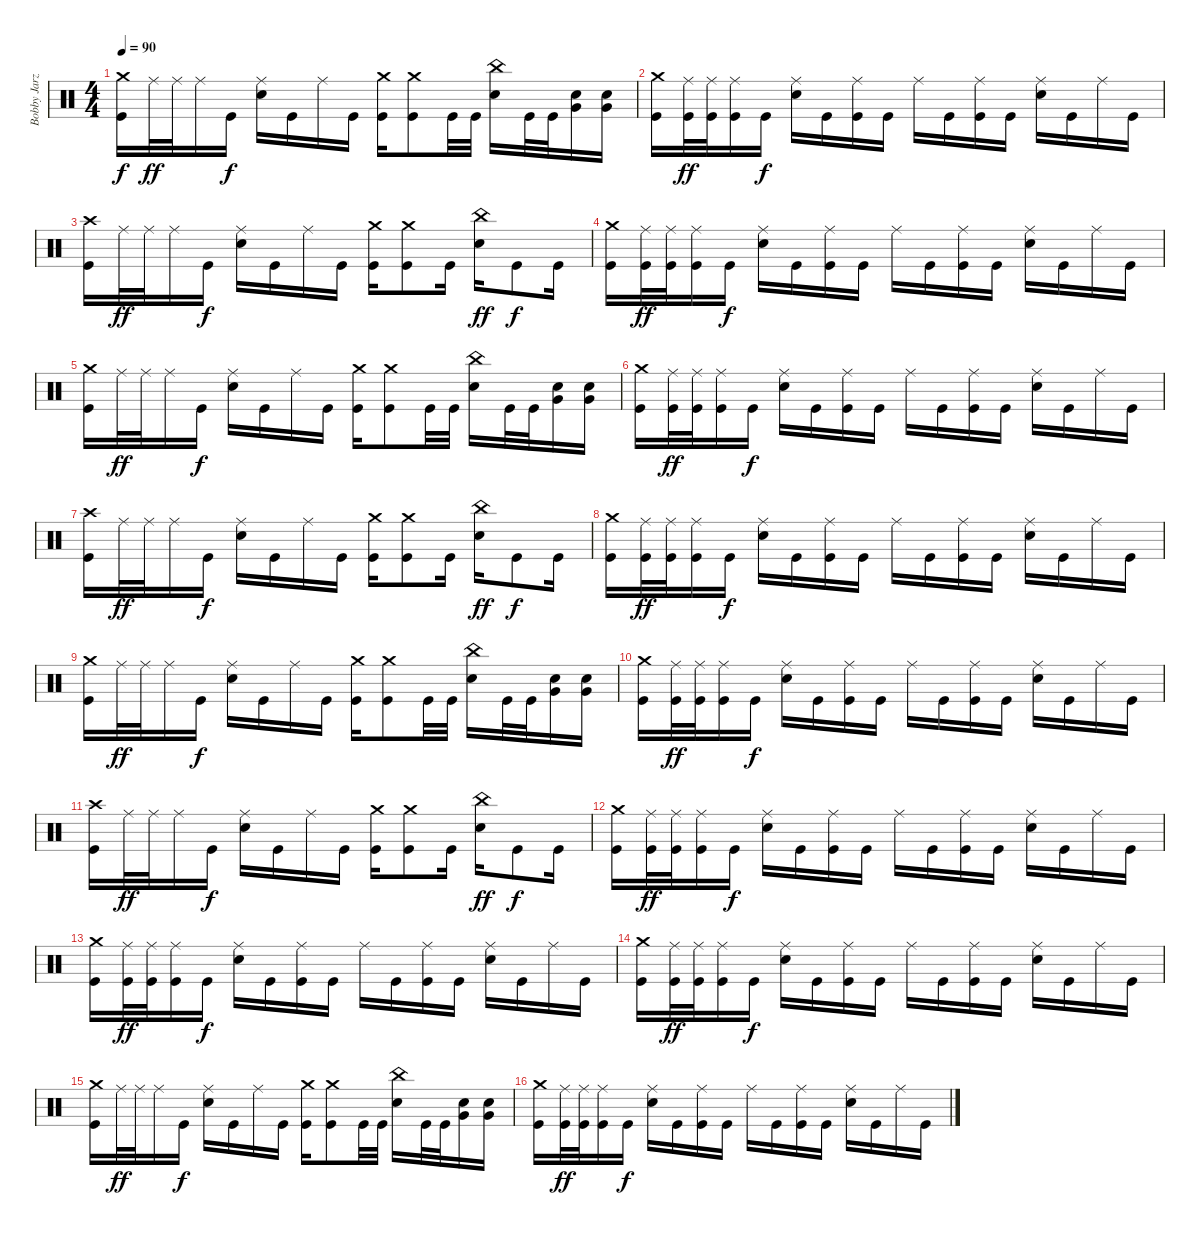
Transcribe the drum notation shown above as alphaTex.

\track ("Bobby Jarzombek" "Bobby Jarz") {instrument percussion}
\staff {score}
\articulation defaults
\ts (4 4)
\tempo 90
\clef neutral
\ks c
("Crash medium (hit)" "Kick (hit)").16{dy f} "Ride (middle)".32{dy ff} "Ride (middle)".32 "Ride (middle)".16 "Kick (hit)".16{dy f} ("Ride (middle)" "Electric Snare (hit)").16 "Kick (hit)".16 "Ride (middle)".16 "Kick (hit)".16 ("Crash medium (hit)" "Kick (hit)").16 ("Crash medium (hit)" "Kick (hit)").8 "Kick (hit)".32 "Kick (hit)".32 ("China (hit)" "Electric Snare (hit)").16 "Kick (hit)".32 "Kick (hit)".32 ("Very Low Tom (hit)" "Electric Snare (hit)").16 ("Very Low Tom (hit)" "Electric Snare (hit)").16 |
("Crash medium (hit)" "Kick (hit)").16 ("Ride (middle)" "Kick (hit)").32{dy ff} ("Ride (middle)" "Kick (hit)").32 ("Ride (middle)" "Kick (hit)").16 "Kick (hit)".16{dy f} ("Ride (middle)" "Electric Snare (hit)").16 "Kick (hit)".16 ("Ride (middle)" "Kick (hit)").16 "Kick (hit)".16 "Ride (middle)".16 "Kick (hit)".16 ("Ride (middle)" "Kick (hit)").16 "Kick (hit)".16 ("Ride (middle)" "Electric Snare (hit)").16 "Kick (hit)".16 "Ride (middle)".16 "Kick (hit)".16 |
("Crash high (hit)" "Kick (hit)").16 "Ride (middle)".32{dy ff} "Ride (middle)".32 "Ride (middle)".16 "Kick (hit)".16{dy f} ("Ride (middle)" "Electric Snare (hit)").16 "Kick (hit)".16 "Ride (middle)".16 "Kick (hit)".16 ("Crash medium (hit)" "Kick (hit)").16 ("Crash medium (hit)" "Kick (hit)").8 "Kick (hit)".16 ("China (hit)" "Electric Snare (hit)").16{dy ff} "Kick (hit)".8{dy f} "Kick (hit)".16 |
("Crash medium (hit)" "Kick (hit)").16 ("Ride (middle)" "Kick (hit)").32{dy ff} ("Ride (middle)" "Kick (hit)").32 ("Ride (middle)" "Kick (hit)").16 "Kick (hit)".16{dy f} ("Ride (middle)" "Electric Snare (hit)").16 "Kick (hit)".16 ("Ride (middle)" "Kick (hit)").16 "Kick (hit)".16 "Ride (middle)".16 "Kick (hit)".16 ("Ride (middle)" "Kick (hit)").16 "Kick (hit)".16 ("Ride (middle)" "Electric Snare (hit)").16 "Kick (hit)".16 "Ride (middle)".16 "Kick (hit)".16 |
("Crash medium (hit)" "Kick (hit)").16 "Ride (middle)".32{dy ff} "Ride (middle)".32 "Ride (middle)".16 "Kick (hit)".16{dy f} ("Ride (middle)" "Electric Snare (hit)").16 "Kick (hit)".16 "Ride (middle)".16 "Kick (hit)".16 ("Crash medium (hit)" "Kick (hit)").16 ("Crash medium (hit)" "Kick (hit)").8 "Kick (hit)".32 "Kick (hit)".32 ("China (hit)" "Electric Snare (hit)").16 "Kick (hit)".32 "Kick (hit)".32 ("Very Low Tom (hit)" "Electric Snare (hit)").16 ("Very Low Tom (hit)" "Electric Snare (hit)").16 |
("Crash medium (hit)" "Kick (hit)").16 ("Ride (middle)" "Kick (hit)").32{dy ff} ("Ride (middle)" "Kick (hit)").32 ("Ride (middle)" "Kick (hit)").16 "Kick (hit)".16{dy f} ("Ride (middle)" "Electric Snare (hit)").16 "Kick (hit)".16 ("Ride (middle)" "Kick (hit)").16 "Kick (hit)".16 "Ride (middle)".16 "Kick (hit)".16 ("Ride (middle)" "Kick (hit)").16 "Kick (hit)".16 ("Ride (middle)" "Electric Snare (hit)").16 "Kick (hit)".16 "Ride (middle)".16 "Kick (hit)".16 |
("Crash high (hit)" "Kick (hit)").16 "Ride (middle)".32{dy ff} "Ride (middle)".32 "Ride (middle)".16 "Kick (hit)".16{dy f} ("Ride (middle)" "Electric Snare (hit)").16 "Kick (hit)".16 "Ride (middle)".16 "Kick (hit)".16 ("Crash medium (hit)" "Kick (hit)").16 ("Crash medium (hit)" "Kick (hit)").8 "Kick (hit)".16 ("China (hit)" "Electric Snare (hit)").16{dy ff} "Kick (hit)".8{dy f} "Kick (hit)".16 |
("Crash medium (hit)" "Kick (hit)").16 ("Ride (middle)" "Kick (hit)").32{dy ff} ("Ride (middle)" "Kick (hit)").32 ("Ride (middle)" "Kick (hit)").16 "Kick (hit)".16{dy f} ("Ride (middle)" "Electric Snare (hit)").16 "Kick (hit)".16 ("Ride (middle)" "Kick (hit)").16 "Kick (hit)".16 "Ride (middle)".16 "Kick (hit)".16 ("Ride (middle)" "Kick (hit)").16 "Kick (hit)".16 ("Ride (middle)" "Electric Snare (hit)").16 "Kick (hit)".16 "Ride (middle)".16 "Kick (hit)".16 |
("Crash medium (hit)" "Kick (hit)").16 "Ride (middle)".32{dy ff} "Ride (middle)".32 "Ride (middle)".16 "Kick (hit)".16{dy f} ("Ride (middle)" "Electric Snare (hit)").16 "Kick (hit)".16 "Ride (middle)".16 "Kick (hit)".16 ("Crash medium (hit)" "Kick (hit)").16 ("Crash medium (hit)" "Kick (hit)").8 "Kick (hit)".32 "Kick (hit)".32 ("China (hit)" "Electric Snare (hit)").16 "Kick (hit)".32 "Kick (hit)".32 ("Very Low Tom (hit)" "Electric Snare (hit)").16 ("Very Low Tom (hit)" "Electric Snare (hit)").16 |
("Crash medium (hit)" "Kick (hit)").16 ("Ride (middle)" "Kick (hit)").32{dy ff} ("Ride (middle)" "Kick (hit)").32 ("Ride (middle)" "Kick (hit)").16 "Kick (hit)".16{dy f} ("Ride (middle)" "Electric Snare (hit)").16 "Kick (hit)".16 ("Ride (middle)" "Kick (hit)").16 "Kick (hit)".16 "Ride (middle)".16 "Kick (hit)".16 ("Ride (middle)" "Kick (hit)").16 "Kick (hit)".16 ("Ride (middle)" "Electric Snare (hit)").16 "Kick (hit)".16 "Ride (middle)".16 "Kick (hit)".16 |
("Crash high (hit)" "Kick (hit)").16 "Ride (middle)".32{dy ff} "Ride (middle)".32 "Ride (middle)".16 "Kick (hit)".16{dy f} ("Ride (middle)" "Electric Snare (hit)").16 "Kick (hit)".16 "Ride (middle)".16 "Kick (hit)".16 ("Crash medium (hit)" "Kick (hit)").16 ("Crash medium (hit)" "Kick (hit)").8 "Kick (hit)".16 ("China (hit)" "Electric Snare (hit)").16{dy ff} "Kick (hit)".8{dy f} "Kick (hit)".16 |
("Crash medium (hit)" "Kick (hit)").16 ("Ride (middle)" "Kick (hit)").32{dy ff} ("Ride (middle)" "Kick (hit)").32 ("Ride (middle)" "Kick (hit)").16 "Kick (hit)".16{dy f} ("Ride (middle)" "Electric Snare (hit)").16 "Kick (hit)".16 ("Ride (middle)" "Kick (hit)").16 "Kick (hit)".16 "Ride (middle)".16 "Kick (hit)".16 ("Ride (middle)" "Kick (hit)").16 "Kick (hit)".16 ("Ride (middle)" "Electric Snare (hit)").16 "Kick (hit)".16 "Ride (middle)".16 "Kick (hit)".16 |
("Crash medium (hit)" "Kick (hit)").16 ("Ride (middle)" "Kick (hit)").32{dy ff} ("Ride (middle)" "Kick (hit)").32 ("Ride (middle)" "Kick (hit)").16 "Kick (hit)".16{dy f} ("Ride (middle)" "Electric Snare (hit)").16 "Kick (hit)".16 ("Ride (middle)" "Kick (hit)").16 "Kick (hit)".16 "Ride (middle)".16 "Kick (hit)".16 ("Ride (middle)" "Kick (hit)").16 "Kick (hit)".16 ("Ride (middle)" "Electric Snare (hit)").16 "Kick (hit)".16 "Ride (middle)".16 "Kick (hit)".16 |
("Crash medium (hit)" "Kick (hit)").16 ("Ride (middle)" "Kick (hit)").32{dy ff} ("Ride (middle)" "Kick (hit)").32 ("Ride (middle)" "Kick (hit)").16 "Kick (hit)".16{dy f} ("Ride (middle)" "Electric Snare (hit)").16 "Kick (hit)".16 ("Ride (middle)" "Kick (hit)").16 "Kick (hit)".16 "Ride (middle)".16 "Kick (hit)".16 ("Ride (middle)" "Kick (hit)").16 "Kick (hit)".16 ("Ride (middle)" "Electric Snare (hit)").16 "Kick (hit)".16 "Ride (middle)".16 "Kick (hit)".16 |
("Crash medium (hit)" "Kick (hit)").16 "Ride (middle)".32{dy ff} "Ride (middle)".32 "Ride (middle)".16 "Kick (hit)".16{dy f} ("Ride (middle)" "Electric Snare (hit)").16 "Kick (hit)".16 "Ride (middle)".16 "Kick (hit)".16 ("Crash medium (hit)" "Kick (hit)").16 ("Crash medium (hit)" "Kick (hit)").8 "Kick (hit)".32 "Kick (hit)".32 ("China (hit)" "Electric Snare (hit)").16 "Kick (hit)".32 "Kick (hit)".32 ("Very Low Tom (hit)" "Electric Snare (hit)").16 ("Very Low Tom (hit)" "Electric Snare (hit)").16 |
("Crash medium (hit)" "Kick (hit)").16 ("Ride (middle)" "Kick (hit)").32{dy ff} ("Ride (middle)" "Kick (hit)").32 ("Ride (middle)" "Kick (hit)").16 "Kick (hit)".16{dy f} ("Ride (middle)" "Electric Snare (hit)").16 "Kick (hit)".16 ("Ride (middle)" "Kick (hit)").16 "Kick (hit)".16 "Ride (middle)".16 "Kick (hit)".16 ("Ride (middle)" "Kick (hit)").16 "Kick (hit)".16 ("Ride (middle)" "Electric Snare (hit)").16 "Kick (hit)".16 "Ride (middle)".16 "Kick (hit)".16
